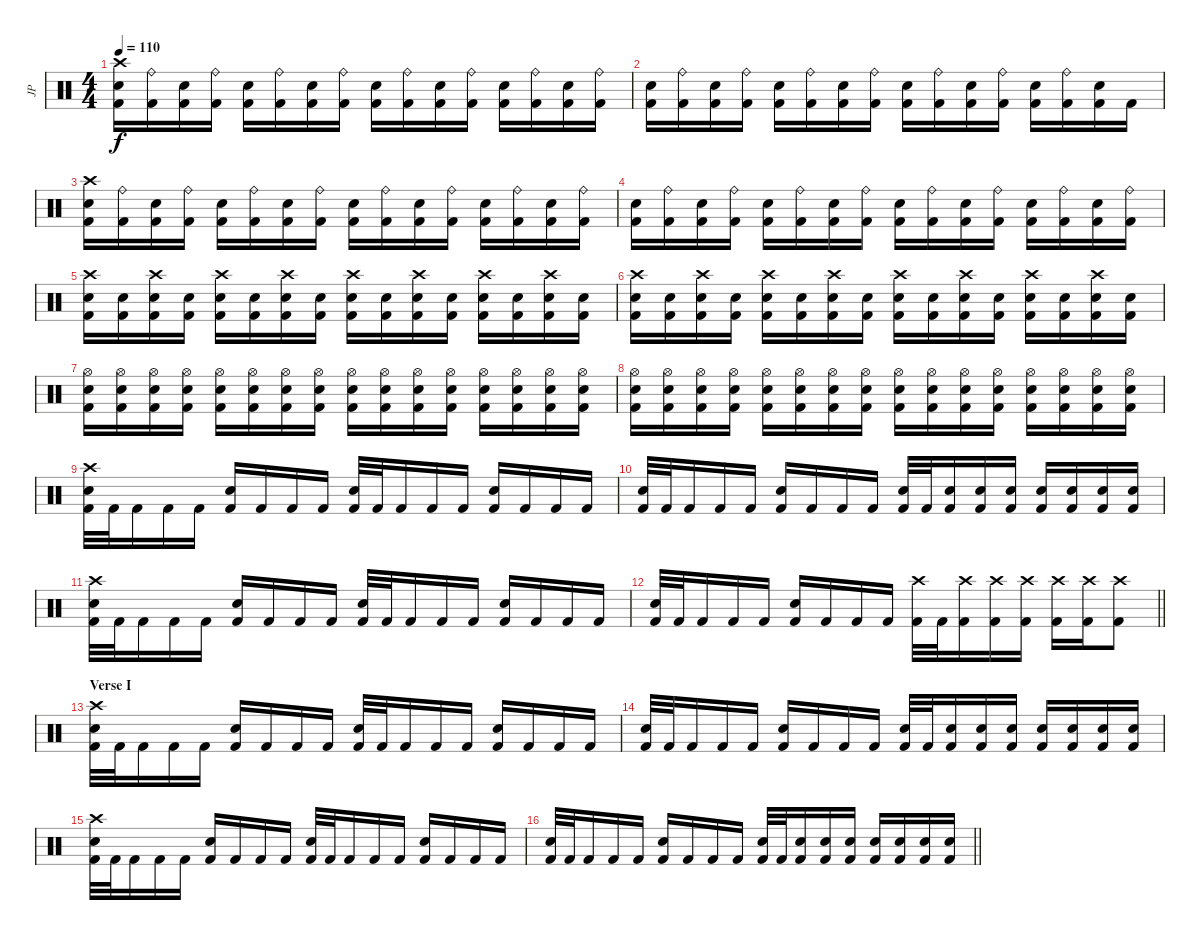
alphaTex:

\track ("JP" "JP") {instrument percussion}
\staff {score}
\articulation defaults
\ts (4 4)
\tempo 110
\clef neutral
\ks c
("Crash high (hit)" "Electric Snare (hit)" "Kick (hit) 2").16{dy f} ("Ride (bell)" "Kick (hit) 2").16 ("Electric Snare (hit)" "Kick (hit) 2").16 ("Ride (bell)" "Kick (hit) 2").16 ("Electric Snare (hit)" "Kick (hit) 2").16 ("Ride (bell)" "Kick (hit) 2").16 ("Electric Snare (hit)" "Kick (hit) 2").16 ("Ride (bell)" "Kick (hit) 2").16 ("Electric Snare (hit)" "Kick (hit) 2").16 ("Ride (bell)" "Kick (hit) 2").16 ("Electric Snare (hit)" "Kick (hit) 2").16 ("Ride (bell)" "Kick (hit) 2").16 ("Electric Snare (hit)" "Kick (hit) 2").16 ("Ride (bell)" "Kick (hit) 2").16 ("Electric Snare (hit)" "Kick (hit) 2").16 ("Ride (bell)" "Kick (hit) 2").16 |
("Electric Snare (hit)" "Kick (hit) 2").16 ("Ride (bell)" "Kick (hit) 2").16 ("Electric Snare (hit)" "Kick (hit) 2").16 ("Ride (bell)" "Kick (hit) 2").16 ("Electric Snare (hit)" "Kick (hit) 2").16 ("Ride (bell)" "Kick (hit) 2").16 ("Electric Snare (hit)" "Kick (hit) 2").16 ("Ride (bell)" "Kick (hit) 2").16 ("Electric Snare (hit)" "Kick (hit) 2").16 ("Ride (bell)" "Kick (hit) 2").16 ("Electric Snare (hit)" "Kick (hit) 2").16 ("Ride (bell)" "Kick (hit) 2").16 ("Electric Snare (hit)" "Kick (hit) 2").16 ("Ride (bell)" "Kick (hit) 2").16 ("Electric Snare (hit)" "Kick (hit) 2").16 "Kick (hit) 2".16 |
("Crash high (hit)" "Electric Snare (hit)" "Kick (hit) 2").16 ("Ride (bell)" "Kick (hit) 2").16 ("Electric Snare (hit)" "Kick (hit) 2").16 ("Ride (bell)" "Kick (hit) 2").16 ("Electric Snare (hit)" "Kick (hit) 2").16 ("Ride (bell)" "Kick (hit) 2").16 ("Electric Snare (hit)" "Kick (hit) 2").16 ("Ride (bell)" "Kick (hit) 2").16 ("Electric Snare (hit)" "Kick (hit) 2").16 ("Ride (bell)" "Kick (hit) 2").16 ("Electric Snare (hit)" "Kick (hit) 2").16 ("Ride (bell)" "Kick (hit) 2").16 ("Electric Snare (hit)" "Kick (hit) 2").16 ("Ride (bell)" "Kick (hit) 2").16 ("Electric Snare (hit)" "Kick (hit) 2").16 ("Ride (bell)" "Kick (hit) 2").16 |
("Electric Snare (hit)" "Kick (hit) 2").16 ("Ride (bell)" "Kick (hit) 2").16 ("Electric Snare (hit)" "Kick (hit) 2").16 ("Ride (bell)" "Kick (hit) 2").16 ("Electric Snare (hit)" "Kick (hit) 2").16 ("Ride (bell)" "Kick (hit) 2").16 ("Electric Snare (hit)" "Kick (hit) 2").16 ("Ride (bell)" "Kick (hit) 2").16 ("Electric Snare (hit)" "Kick (hit) 2").16 ("Ride (bell)" "Kick (hit) 2").16 ("Electric Snare (hit)" "Kick (hit) 2").16 ("Ride (bell)" "Kick (hit) 2").16 ("Electric Snare (hit)" "Kick (hit) 2").16 ("Ride (bell)" "Kick (hit) 2").16 ("Electric Snare (hit)" "Kick (hit) 2").16 ("Ride (bell)" "Kick (hit) 2").16 |
("Crash high (hit)" "Electric Snare (hit)" "Kick (hit) 2").16 ("Electric Snare (hit)" "Kick (hit) 2").16 ("Crash high (hit)" "Electric Snare (hit)" "Kick (hit) 2").16 ("Electric Snare (hit)" "Kick (hit) 2").16 ("Crash high (hit)" "Electric Snare (hit)" "Kick (hit) 2").16 ("Electric Snare (hit)" "Kick (hit) 2").16 ("Crash high (hit)" "Electric Snare (hit)" "Kick (hit) 2").16 ("Electric Snare (hit)" "Kick (hit) 2").16 ("Crash high (hit)" "Electric Snare (hit)" "Kick (hit) 2").16 ("Electric Snare (hit)" "Kick (hit) 2").16 ("Crash high (hit)" "Electric Snare (hit)" "Kick (hit) 2").16 ("Electric Snare (hit)" "Kick (hit) 2").16 ("Crash high (hit)" "Electric Snare (hit)" "Kick (hit) 2").16 ("Electric Snare (hit)" "Kick (hit) 2").16 ("Crash high (hit)" "Electric Snare (hit)" "Kick (hit) 2").16 ("Electric Snare (hit)" "Kick (hit) 2").16 |
("Crash high (hit)" "Electric Snare (hit)" "Kick (hit) 2").16 ("Electric Snare (hit)" "Kick (hit) 2").16 ("Crash high (hit)" "Electric Snare (hit)" "Kick (hit) 2").16 ("Electric Snare (hit)" "Kick (hit) 2").16 ("Crash high (hit)" "Electric Snare (hit)" "Kick (hit) 2").16 ("Electric Snare (hit)" "Kick (hit) 2").16 ("Crash high (hit)" "Electric Snare (hit)" "Kick (hit) 2").16 ("Electric Snare (hit)" "Kick (hit) 2").16 ("Crash high (hit)" "Electric Snare (hit)" "Kick (hit) 2").16 ("Electric Snare (hit)" "Kick (hit) 2").16 ("Crash high (hit)" "Electric Snare (hit)" "Kick (hit) 2").16 ("Electric Snare (hit)" "Kick (hit) 2").16 ("Crash high (hit)" "Electric Snare (hit)" "Kick (hit) 2").16 ("Electric Snare (hit)" "Kick (hit) 2").16 ("Crash high (hit)" "Electric Snare (hit)" "Kick (hit) 2").16 ("Electric Snare (hit)" "Kick (hit) 2").16 |
("Hi-Hat (open)" "Electric Snare (hit)" "Kick (hit) 2").16 ("Hi-Hat (open)" "Electric Snare (hit)" "Kick (hit) 2").16 ("Hi-Hat (open)" "Electric Snare (hit)" "Kick (hit) 2").16 ("Hi-Hat (open)" "Electric Snare (hit)" "Kick (hit) 2").16 ("Hi-Hat (open)" "Electric Snare (hit)" "Kick (hit) 2").16 ("Hi-Hat (open)" "Electric Snare (hit)" "Kick (hit) 2").16 ("Hi-Hat (open)" "Electric Snare (hit)" "Kick (hit) 2").16 ("Hi-Hat (open)" "Electric Snare (hit)" "Kick (hit) 2").16 ("Hi-Hat (open)" "Electric Snare (hit)" "Kick (hit) 2").16 ("Hi-Hat (open)" "Electric Snare (hit)" "Kick (hit) 2").16 ("Hi-Hat (open)" "Electric Snare (hit)" "Kick (hit) 2").16 ("Hi-Hat (open)" "Electric Snare (hit)" "Kick (hit) 2").16 ("Hi-Hat (open)" "Electric Snare (hit)" "Kick (hit) 2").16 ("Hi-Hat (open)" "Electric Snare (hit)" "Kick (hit) 2").16 ("Hi-Hat (open)" "Electric Snare (hit)" "Kick (hit) 2").16 ("Hi-Hat (open)" "Electric Snare (hit)" "Kick (hit) 2").16 |
("Hi-Hat (open)" "Electric Snare (hit)" "Kick (hit) 2").16 ("Hi-Hat (open)" "Electric Snare (hit)" "Kick (hit) 2").16 ("Hi-Hat (open)" "Electric Snare (hit)" "Kick (hit) 2").16 ("Hi-Hat (open)" "Electric Snare (hit)" "Kick (hit) 2").16 ("Hi-Hat (open)" "Electric Snare (hit)" "Kick (hit) 2").16 ("Hi-Hat (open)" "Electric Snare (hit)" "Kick (hit) 2").16 ("Hi-Hat (open)" "Electric Snare (hit)" "Kick (hit) 2").16 ("Hi-Hat (open)" "Electric Snare (hit)" "Kick (hit) 2").16 ("Hi-Hat (open)" "Electric Snare (hit)" "Kick (hit) 2").16 ("Hi-Hat (open)" "Electric Snare (hit)" "Kick (hit) 2").16 ("Hi-Hat (open)" "Electric Snare (hit)" "Kick (hit) 2").16 ("Hi-Hat (open)" "Electric Snare (hit)" "Kick (hit) 2").16 ("Hi-Hat (open)" "Electric Snare (hit)" "Kick (hit) 2").16 ("Hi-Hat (open)" "Electric Snare (hit)" "Kick (hit) 2").16 ("Hi-Hat (open)" "Electric Snare (hit)" "Kick (hit) 2").16 ("Hi-Hat (open)" "Electric Snare (hit)" "Kick (hit) 2").16 |
("Crash high (hit)" "Electric Snare (hit)" "Kick (hit) 2").32 "Kick (hit) 2".32 "Kick (hit) 2".16 "Kick (hit) 2".16 "Kick (hit) 2".16 ("Electric Snare (hit)" "Kick (hit) 2").16 "Kick (hit) 2".16 "Kick (hit) 2".16 "Kick (hit) 2".16 ("Electric Snare (hit)" "Kick (hit) 2").32 "Kick (hit) 2".32 "Kick (hit) 2".16 "Kick (hit) 2".16 "Kick (hit) 2".16 ("Electric Snare (hit)" "Kick (hit) 2").16 "Kick (hit) 2".16 "Kick (hit) 2".16 "Kick (hit) 2".16 |
("Electric Snare (hit)" "Kick (hit) 2").32 "Kick (hit) 2".32 "Kick (hit) 2".16 "Kick (hit) 2".16 "Kick (hit) 2".16 ("Electric Snare (hit)" "Kick (hit) 2").16 "Kick (hit) 2".16 "Kick (hit) 2".16 "Kick (hit) 2".16 ("Electric Snare (hit)" "Kick (hit) 2").32 "Kick (hit) 2".32 ("Electric Snare (hit)" "Kick (hit) 2").16 ("Electric Snare (hit)" "Kick (hit) 2").16 ("Electric Snare (hit)" "Kick (hit) 2").16 ("Electric Snare (hit)" "Kick (hit) 2").16 ("Electric Snare (hit)" "Kick (hit) 2").16 ("Electric Snare (hit)" "Kick (hit) 2").16 ("Electric Snare (hit)" "Kick (hit) 2").16 |
("Crash high (hit)" "Electric Snare (hit)" "Kick (hit) 2").32 "Kick (hit) 2".32 "Kick (hit) 2".16 "Kick (hit) 2".16 "Kick (hit) 2".16 ("Electric Snare (hit)" "Kick (hit) 2").16 "Kick (hit) 2".16 "Kick (hit) 2".16 "Kick (hit) 2".16 ("Electric Snare (hit)" "Kick (hit) 2").32 "Kick (hit) 2".32 "Kick (hit) 2".16 "Kick (hit) 2".16 "Kick (hit) 2".16 ("Electric Snare (hit)" "Kick (hit) 2").16 "Kick (hit) 2".16 "Kick (hit) 2".16 "Kick (hit) 2".16 |
\barLineRight lightlight
("Electric Snare (hit)" "Kick (hit) 2").32 "Kick (hit) 2".32 "Kick (hit) 2".16 "Kick (hit) 2".16 "Kick (hit) 2".16 ("Electric Snare (hit)" "Kick (hit) 2").16 "Kick (hit) 2".16 "Kick (hit) 2".16 "Kick (hit) 2".16 ("Crash high (hit)" "Kick (hit) 2").32 "Kick (hit) 2".32 ("Crash high (hit)" "Kick (hit) 2").16 ("Crash high (hit)" "Kick (hit) 2").16 ("Crash high (hit)" "Kick (hit) 2").16 ("Crash high (hit)" "Kick (hit) 2").16 ("Crash high (hit)" "Kick (hit) 2").16 ("Crash high (hit)" "Kick (hit) 2").8 |
\section ("" "Verse I")
("Crash high (hit)" "Electric Snare (hit)" "Kick (hit) 2").32 "Kick (hit) 2".32 "Kick (hit) 2".16 "Kick (hit) 2".16 "Kick (hit) 2".16 ("Electric Snare (hit)" "Kick (hit) 2").16 "Kick (hit) 2".16 "Kick (hit) 2".16 "Kick (hit) 2".16 ("Electric Snare (hit)" "Kick (hit) 2").32 "Kick (hit) 2".32 "Kick (hit) 2".16 "Kick (hit) 2".16 "Kick (hit) 2".16 ("Electric Snare (hit)" "Kick (hit) 2").16 "Kick (hit) 2".16 "Kick (hit) 2".16 "Kick (hit) 2".16 |
("Electric Snare (hit)" "Kick (hit) 2").32 "Kick (hit) 2".32 "Kick (hit) 2".16 "Kick (hit) 2".16 "Kick (hit) 2".16 ("Electric Snare (hit)" "Kick (hit) 2").16 "Kick (hit) 2".16 "Kick (hit) 2".16 "Kick (hit) 2".16 ("Electric Snare (hit)" "Kick (hit) 2").32 "Kick (hit) 2".32 ("Electric Snare (hit)" "Kick (hit) 2").16 ("Electric Snare (hit)" "Kick (hit) 2").16 ("Electric Snare (hit)" "Kick (hit) 2").16 ("Electric Snare (hit)" "Kick (hit) 2").16 ("Electric Snare (hit)" "Kick (hit) 2").16 ("Electric Snare (hit)" "Kick (hit) 2").16 ("Electric Snare (hit)" "Kick (hit) 2").16 |
("Crash high (hit)" "Electric Snare (hit)" "Kick (hit) 2").32 "Kick (hit) 2".32 "Kick (hit) 2".16 "Kick (hit) 2".16 "Kick (hit) 2".16 ("Electric Snare (hit)" "Kick (hit) 2").16 "Kick (hit) 2".16 "Kick (hit) 2".16 "Kick (hit) 2".16 ("Electric Snare (hit)" "Kick (hit) 2").32 "Kick (hit) 2".32 "Kick (hit) 2".16 "Kick (hit) 2".16 "Kick (hit) 2".16 ("Electric Snare (hit)" "Kick (hit) 2").16 "Kick (hit) 2".16 "Kick (hit) 2".16 "Kick (hit) 2".16 |
\barLineRight lightlight
("Electric Snare (hit)" "Kick (hit) 2").32 "Kick (hit) 2".32 "Kick (hit) 2".16 "Kick (hit) 2".16 "Kick (hit) 2".16 ("Electric Snare (hit)" "Kick (hit) 2").16 "Kick (hit) 2".16 "Kick (hit) 2".16 "Kick (hit) 2".16 ("Electric Snare (hit)" "Kick (hit) 2").32 "Kick (hit) 2".32 ("Electric Snare (hit)" "Kick (hit) 2").16 ("Electric Snare (hit)" "Kick (hit) 2").16 ("Electric Snare (hit)" "Kick (hit) 2").16 ("Electric Snare (hit)" "Kick (hit) 2").16 ("Electric Snare (hit)" "Kick (hit) 2").16 ("Electric Snare (hit)" "Kick (hit) 2").16 ("Electric Snare (hit)" "Kick (hit) 2").16
